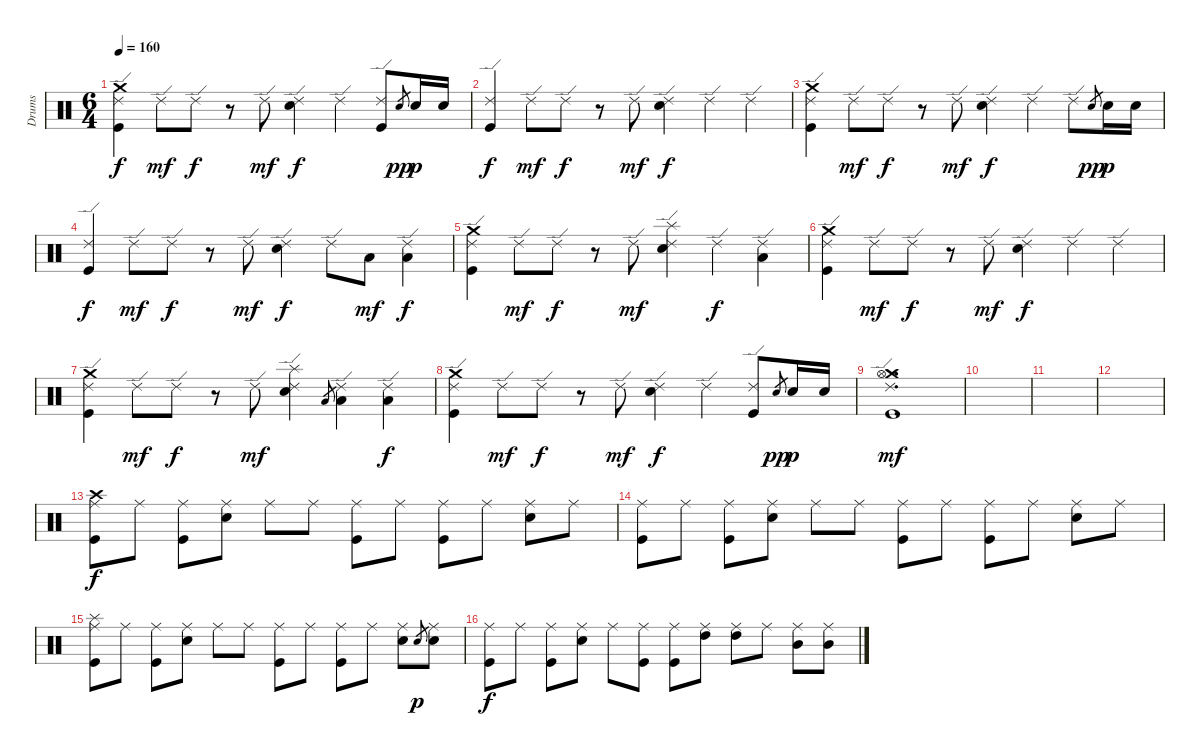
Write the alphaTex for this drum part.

\track ("Drums" "Drums") {instrument percussion}
\staff {score}
\articulation defaults
\ts (6 4)
\tempo 160
\clef neutral
\ks c
("Crash medium (hit)" "Ride (edge) 2" "Kick (hit)").4{dy f} "Ride (edge) 2".8{dy mf} "Ride (edge) 2".8{dy f} r.8 "Ride (edge) 2".8{dy mf} ("Ride (edge) 2" "Electric Snare (hit)").4{dy f} "Ride (edge) 2".4 ("Ride (edge) 2" "Kick (hit)").8 "Electric Snare (hit)".8{gr dy pp} "Electric Snare (hit)".16{dy p} "Electric Snare (hit)".16 |
("Ride (edge) 2" "Kick (hit)").4{dy f} "Ride (edge) 2".8{dy mf} "Ride (edge) 2".8{dy f} r.8 "Ride (edge) 2".8{dy mf} ("Ride (edge) 2" "Electric Snare (hit)").4{dy f} "Ride (edge) 2".4 "Ride (edge) 2".4 |
("Crash medium (hit)" "Ride (edge) 2" "Kick (hit)").4 "Ride (edge) 2".8{dy mf} "Ride (edge) 2".8{dy f} r.8 "Ride (edge) 2".8{dy mf} ("Ride (edge) 2" "Electric Snare (hit)").4{dy f} "Ride (edge) 2".4 "Ride (edge) 2".8 "Electric Snare (hit)".8{gr dy pp} "Electric Snare (hit)".16{dy p} "Electric Snare (hit)".16 |
("Ride (edge) 2" "Kick (hit)").4{dy f} "Ride (edge) 2".8{dy mf} "Ride (edge) 2".8{dy f} r.8 "Ride (edge) 2".8{dy mf} ("Ride (edge) 2" "Electric Snare (hit)").4{dy f} "Ride (edge) 2".8 "Low Tom (hit)".8{dy mf} ("Ride (edge) 2" "Low Tom (hit)").4{dy f} |
("Crash medium (hit)" "Ride (edge) 2" "Kick (hit)").4 "Ride (edge) 2".8{dy mf} "Ride (edge) 2".8{dy f} r.8 "Ride (edge) 2".8{dy mf} ("Splash (hit)" "Ride (edge) 2" "Electric Snare (hit)").4 "Ride (edge) 2".4{dy f} ("Ride (edge) 2" "Low Tom (hit)").4 |
("Crash medium (hit)" "Ride (edge) 2" "Kick (hit)").4 "Ride (edge) 2".8{dy mf} "Ride (edge) 2".8{dy f} r.8 "Ride (edge) 2".8{dy mf} ("Ride (edge) 2" "Electric Snare (hit)").4{dy f} "Ride (edge) 2".4 "Ride (edge) 2".4 |
("Crash medium (hit)" "Ride (edge) 2" "Kick (hit)").4 "Ride (edge) 2".8{dy mf} "Ride (edge) 2".8{dy f} r.8 "Ride (edge) 2".8{dy mf} ("Splash (hit)" "Ride (edge) 2" "Electric Snare (hit)").4 "Low Tom (hit)".8{gr} ("Ride (edge) 2" "Low Tom (hit)").4 ("Ride (edge) 2" "Low Tom (hit)").4{dy f} |
("Crash medium (hit)" "Ride (edge) 2" "Kick (hit)").4 "Ride (edge) 2".8{dy mf} "Ride (edge) 2".8{dy f} r.8 "Ride (edge) 2".8{dy mf} ("Ride (edge) 2" "Electric Snare (hit)").4{dy f} "Ride (edge) 2".4 ("Ride (edge) 2" "Kick (hit)").8 "Electric Snare (hit)".8{gr dy pp} "Electric Snare (hit)".16{dy p} "Electric Snare (hit)".16 |
("Crash medium (hit)" "Hi-Hat (open)" "Ride (edge) 2" "Kick (hit)").1{d dy mf} |
|
|
|
("Crash high (hit)" "Ride (middle)" "Kick (hit)").8{dy f} "Ride (middle)".8 ("Ride (middle)" "Kick (hit)").8 ("Ride (middle)" "Electric Snare (hit)").8 "Ride (middle)".8 "Ride (middle)".8 ("Ride (middle)" "Kick (hit)").8 "Ride (middle)".8 ("Ride (middle)" "Kick (hit)").8 "Ride (middle)".8 ("Ride (middle)" "Electric Snare (hit)").8 "Ride (middle)".8 |
("Ride (middle)" "Kick (hit)").8 "Ride (middle)".8 ("Ride (middle)" "Kick (hit)").8 ("Ride (middle)" "Electric Snare (hit)").8 "Ride (middle)".8 "Ride (middle)".8 ("Ride (middle)" "Kick (hit)").8 "Ride (middle)".8 ("Ride (middle)" "Kick (hit)").8 "Ride (middle)".8 ("Ride (middle)" "Electric Snare (hit)").8 "Ride (middle)".8 |
("Splash (hit)" "Ride (middle)" "Kick (hit)").8 "Ride (middle)".8 ("Ride (middle)" "Kick (hit)").8 ("Ride (middle)" "Electric Snare (hit)").8 "Ride (middle)".8 "Ride (middle)".8 ("Ride (middle)" "Kick (hit)").8 "Ride (middle)".8 ("Ride (middle)" "Kick (hit)").8 "Ride (middle)".8 ("Ride (middle)" "Electric Snare (hit)").8 "Electric Snare (hit)".8{gr dy p} ("Ride (middle)" "Electric Snare (hit)").8 |
("Ride (middle)" "Kick (hit)").8{dy f} "Ride (middle)".8 ("Ride (middle)" "Kick (hit)").8 ("Ride (middle)" "Electric Snare (hit)").8 "Ride (middle)".8 ("Ride (middle)" "Kick (hit)").8 ("Ride (middle)" "Kick (hit)").8 ("Ride (middle)" "High Tom (hit)").8 ("Ride (middle)" "High Tom (hit)").8 "Ride (middle)".8 ("Ride (middle)" "Mid Tom (hit)").8 ("Ride (middle)" "Mid Tom (hit)").8
